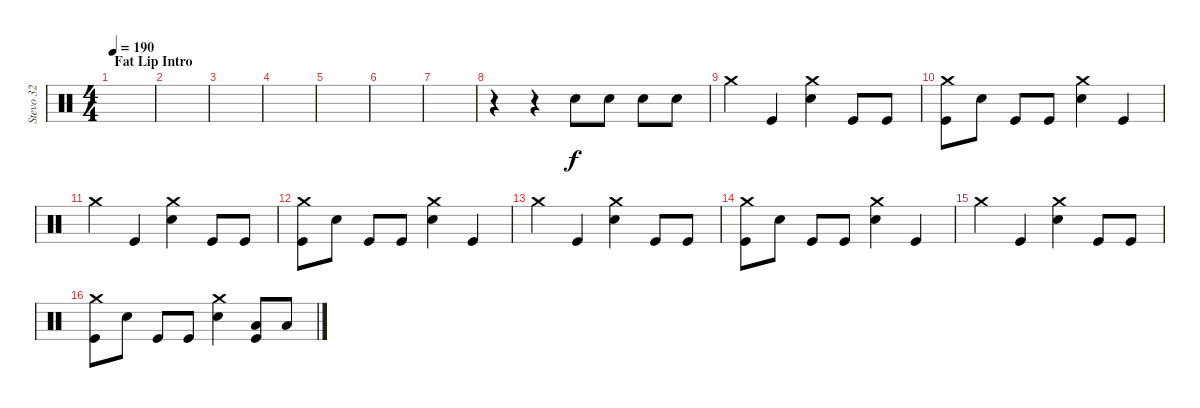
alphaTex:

\track ("Stevo 32" "Stevo 32") {instrument percussion}
\staff {score}
\articulation defaults
\ts (4 4)
\section ("" "Fat Lip Intro")
\tempo 190
\clef neutral
\ks c
|
|
|
|
|
|
|
r.4 r.4 "Electric Snare (hit)".8 "Electric Snare (hit)".8 "Electric Snare (hit)".8 "Electric Snare (hit)".8 |
"Crash medium (hit)".4 "Kick (hit)".4 ("Crash medium (hit)" "Electric Snare (hit)").4 "Kick (hit)".8 "Kick (hit)".8 |
("Crash medium (hit)" "Kick (hit)").8 "Electric Snare (hit)".8 "Kick (hit)".8 "Kick (hit)".8 ("Crash medium (hit)" "Electric Snare (hit)").4 "Kick (hit)".4 |
"Crash medium (hit)".4 "Kick (hit)".4 ("Crash medium (hit)" "Electric Snare (hit)").4 "Kick (hit)".8 "Kick (hit)".8 |
("Crash medium (hit)" "Kick (hit)").8 "Electric Snare (hit)".8 "Kick (hit)".8 "Kick (hit)".8 ("Crash medium (hit)" "Electric Snare (hit)").4 "Kick (hit)".4 |
"Crash medium (hit)".4 "Kick (hit)".4 ("Crash medium (hit)" "Electric Snare (hit)").4 "Kick (hit)".8 "Kick (hit)".8 |
("Crash medium (hit)" "Kick (hit)").8 "Electric Snare (hit)".8 "Kick (hit)".8 "Kick (hit)".8 ("Crash medium (hit)" "Electric Snare (hit)").4 "Kick (hit)".4 |
"Crash medium (hit)".4 "Kick (hit)".4 ("Crash medium (hit)" "Electric Snare (hit)").4 "Kick (hit)".8 "Kick (hit)".8 |
("Crash medium (hit)" "Kick (hit)").8 "Electric Snare (hit)".8 "Kick (hit)".8 "Kick (hit)".8 ("Crash medium (hit)" "Electric Snare (hit)").4 ("Low Tom (hit)" "Kick (hit)").8 "Low Tom (hit)".8
